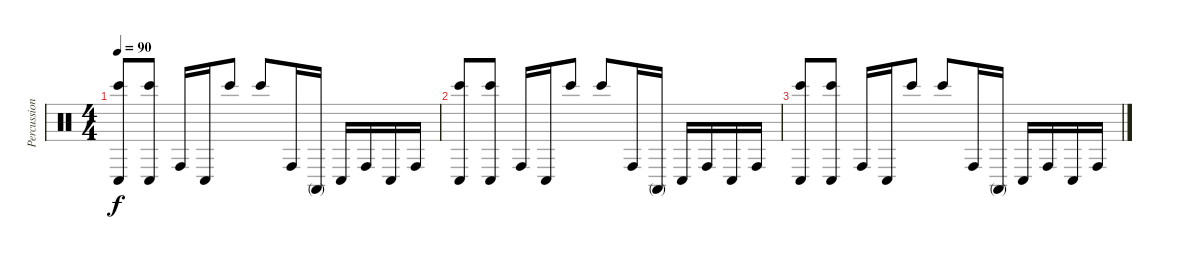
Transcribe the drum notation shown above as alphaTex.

\track ("Percussions" "Percussion") {instrument percussion}
\staff {score}
\articulation defaults
\ts (4 4)
\tempo 90
\clef neutral
\ks c
("Bongo High (hit)" "Conga low (hit)").8{dy f} ("Bongo High (hit)" "Conga low (hit)").8 "Conga high (hit)".16 "Conga low (hit)".16 "Bongo High (hit)".8 "Bongo High (hit)".8 "Conga high (hit)".16 "Conga high (mute)".16 "Conga low (hit)".16 "Conga high (hit)".16 "Conga low (hit)".16 "Conga high (hit)".16 |
("Bongo High (hit)" "Conga low (hit)").8 ("Bongo High (hit)" "Conga low (hit)").8 "Conga high (hit)".16 "Conga low (hit)".16 "Bongo High (hit)".8 "Bongo High (hit)".8 "Conga high (hit)".16 "Conga high (mute)".16 "Conga low (hit)".16 "Conga high (hit)".16 "Conga low (hit)".16 "Conga high (hit)".16 |
("Bongo High (hit)" "Conga low (hit)").8 ("Bongo High (hit)" "Conga low (hit)").8 "Conga high (hit)".16 "Conga low (hit)".16 "Bongo High (hit)".8 "Bongo High (hit)".8 "Conga high (hit)".16 "Conga high (mute)".16 "Conga low (hit)".16 "Conga high (hit)".16 "Conga low (hit)".16 "Conga high (hit)".16
